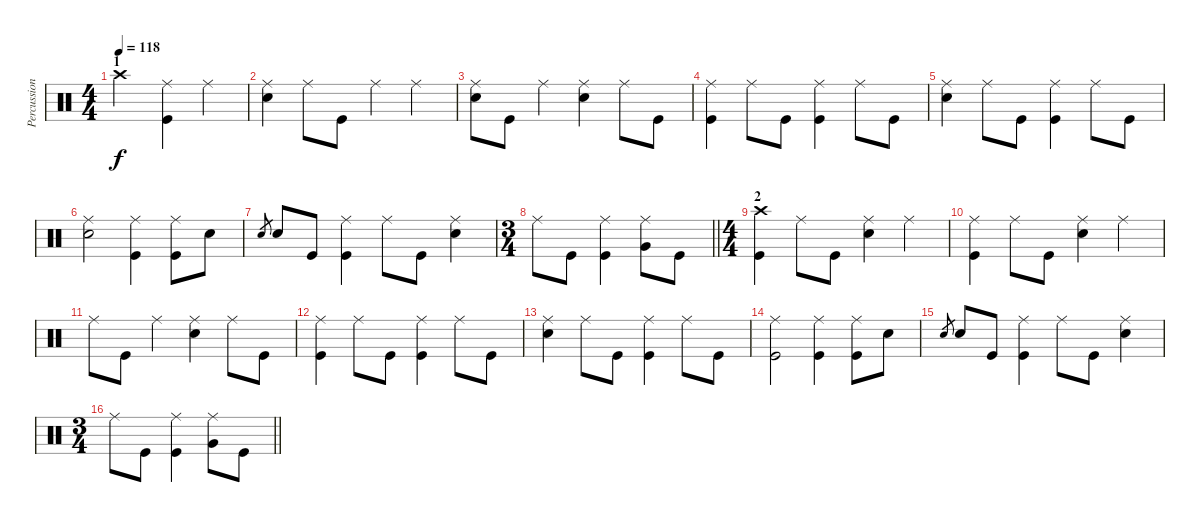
\track ("Percussion" "Percussion") {instrument percussion}
\staff {score}
\articulation defaults
\ts (4 4)
\section ("" "1")
\tempo 118
\clef neutral
\ks c "Crash high (hit)".2{dy f}
("Ride (middle)" "Kick (hit)").4 "Ride (middle)".4 |
("Ride (middle)" "Snare (hit) 2").4 "Ride (middle)".8 "Kick (hit)".8 "Ride (middle)".4 "Ride (middle)".4 |
("Ride (middle)" "Snare (hit) 2").8 "Kick (hit)".8 "Ride (middle)".4 ("Ride (middle)" "Snare (hit) 2").4 "Ride (middle)".8 "Kick (hit)".8 |
("Ride (middle)" "Kick (hit)").4 "Ride (middle)".8 "Kick (hit)".8 ("Ride (middle)" "Kick (hit)").4 "Ride (middle)".8 "Kick (hit)".8 |
("Ride (middle)" "Snare (hit) 2").4 "Ride (middle)".8 "Kick (hit)".8 ("Ride (middle)" "Kick (hit)").4 "Ride (middle)".8 "Kick (hit)".8 |
("Ride (middle)" "Snare (hit) 2").2 ("Ride (middle)" "Kick (hit)").4 ("Ride (middle)" "Kick (hit)").8 "Snare (hit) 2".8 |
"Snare (hit) 2".8{gr} "Snare (hit) 2".8 "Kick (hit)".8 ("Ride (middle)" "Kick (hit)").4 "Ride (middle)".8 "Kick (hit)".8 ("Ride (middle)" "Snare (hit) 2").4 |
\ts (3 4)
\barLineRight lightlight "Ride (middle)".8 "Kick (hit)".8
("Ride (middle)" "Kick (hit)").4 ("Ride (middle)" "Very Low Tom (hit)").8 "Kick (hit)".8 |
\ts (4 4)
\section ("" "2")
("Crash high (hit)" "Kick (hit)").4 "Ride (middle)".8 "Kick (hit)".8 ("Ride (middle)" "Snare (hit) 2").4 "Ride (middle)".4 |
("Ride (middle)" "Kick (hit)").4 "Ride (middle)".8 "Kick (hit)".8 ("Ride (middle)" "Snare (hit) 2").4 "Ride (middle)".4 |
"Ride (middle)".8 "Kick (hit)".8 "Ride (middle)".4 ("Ride (middle)" "Snare (hit) 2").4 "Ride (middle)".8 "Kick (hit)".8 |
("Ride (middle)" "Kick (hit)").4 "Ride (middle)".8 "Kick (hit)".8 ("Ride (middle)" "Kick (hit)").4 "Ride (middle)".8 "Kick (hit)".8 |
("Ride (middle)" "Snare (hit) 2").4 "Ride (middle)".8 "Kick (hit)".8 ("Ride (middle)" "Kick (hit)").4 "Ride (middle)".8 "Kick (hit)".8 |
("Ride (middle)" "Kick (hit)").2 ("Ride (middle)" "Kick (hit)").4 ("Ride (middle)" "Kick (hit)").8 "Snare (hit) 2".8 |
"Snare (hit) 2".8{gr} "Snare (hit) 2".8 "Kick (hit)".8 ("Ride (middle)" "Kick (hit)").4 "Ride (middle)".8 "Kick (hit)".8 ("Ride (middle)" "Snare (hit) 2").4 |
\ts (3 4)
\barLineRight lightlight "Ride (middle)".8 "Kick (hit)".8
("Ride (middle)" "Kick (hit)").4 ("Ride (middle)" "Very Low Tom (hit)").8 "Kick (hit)".8
